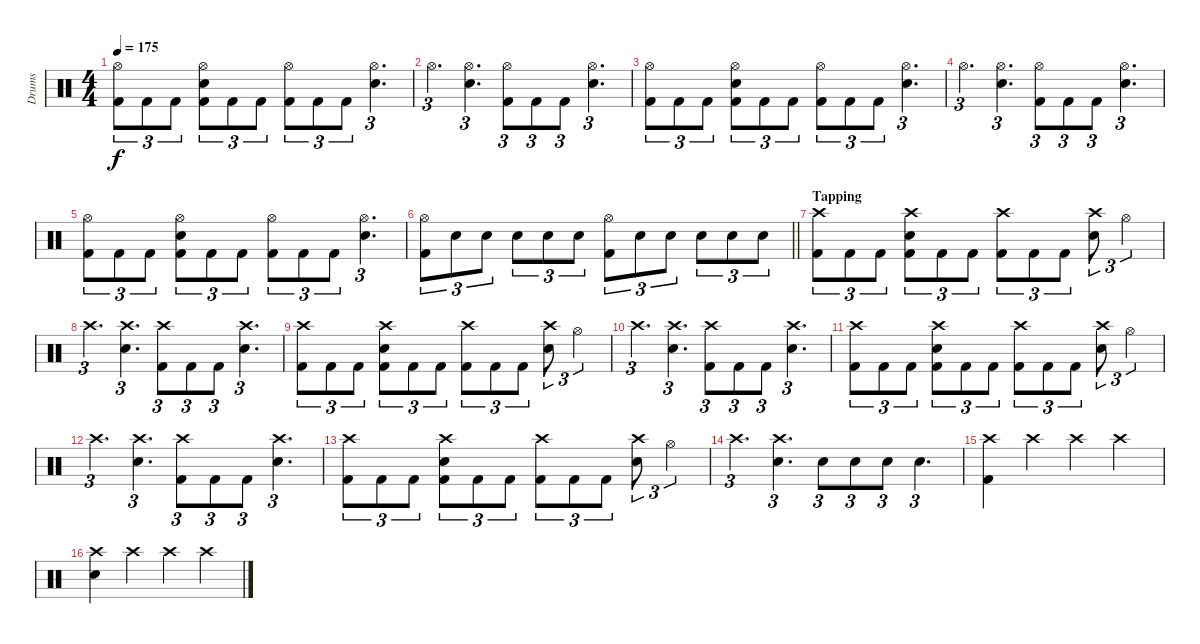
\track ("Drums" "Drums") {instrument percussion}
\staff {score}
\articulation defaults
\ts (4 4)
\tempo 175
\clef neutral
\ks c
("Hi-Hat (open)" "Kick (hit) 2").8{tu (3 2) dy f} "Kick (hit) 2".8{tu (3 2)} "Kick (hit) 2".8{tu (3 2)} ("Hi-Hat (open)" "Snare (hit) 2" "Kick (hit) 2").8{tu (3 2)} "Kick (hit) 2".8{tu (3 2)} "Kick (hit) 2".8{tu (3 2)} ("Hi-Hat (open)" "Kick (hit) 2").8{tu (3 2)} "Kick (hit) 2".8{tu (3 2)} "Kick (hit) 2".8{tu (3 2)} ("Hi-Hat (open)" "Snare (hit) 2").4{d tu (3 2)} |
"Hi-Hat (open)".4{d tu (3 2)} ("Hi-Hat (open)" "Snare (hit) 2").4{d tu (3 2)} ("Hi-Hat (open)" "Kick (hit) 2").8{tu (3 2)} "Kick (hit) 2".8{tu (3 2)} "Kick (hit) 2".8{tu (3 2)} ("Hi-Hat (open)" "Snare (hit) 2").4{d tu (3 2)} |
("Hi-Hat (open)" "Kick (hit) 2").8{tu (3 2)} "Kick (hit) 2".8{tu (3 2)} "Kick (hit) 2".8{tu (3 2)} ("Hi-Hat (open)" "Snare (hit) 2" "Kick (hit) 2").8{tu (3 2)} "Kick (hit) 2".8{tu (3 2)} "Kick (hit) 2".8{tu (3 2)} ("Hi-Hat (open)" "Kick (hit) 2").8{tu (3 2)} "Kick (hit) 2".8{tu (3 2)} "Kick (hit) 2".8{tu (3 2)} ("Hi-Hat (open)" "Snare (hit) 2").4{d tu (3 2)} |
"Hi-Hat (open)".4{d tu (3 2)} ("Hi-Hat (open)" "Snare (hit) 2").4{d tu (3 2)} ("Hi-Hat (open)" "Kick (hit) 2").8{tu (3 2)} "Kick (hit) 2".8{tu (3 2)} "Kick (hit) 2".8{tu (3 2)} ("Hi-Hat (open)" "Snare (hit) 2").4{d tu (3 2)} |
("Hi-Hat (open)" "Kick (hit) 2").8{tu (3 2)} "Kick (hit) 2".8{tu (3 2)} "Kick (hit) 2".8{tu (3 2)} ("Hi-Hat (open)" "Snare (hit) 2" "Kick (hit) 2").8{tu (3 2)} "Kick (hit) 2".8{tu (3 2)} "Kick (hit) 2".8{tu (3 2)} ("Hi-Hat (open)" "Kick (hit) 2").8{tu (3 2)} "Kick (hit) 2".8{tu (3 2)} "Kick (hit) 2".8{tu (3 2)} ("Hi-Hat (open)" "Snare (hit) 2").4{d tu (3 2)} |
\barLineRight lightlight
("Hi-Hat (open)" "Kick (hit) 2").8{tu (3 2)} "Snare (hit) 2".8{tu (3 2)} "Snare (hit) 2".8{tu (3 2)} "Snare (hit) 2".8{tu (3 2)} "Snare (hit) 2".8{tu (3 2)} "Snare (hit) 2".8{tu (3 2)} ("Hi-Hat (open)" "Kick (hit) 2").8{tu (3 2)} "Snare (hit) 2".8{tu (3 2)} "Snare (hit) 2".8{tu (3 2)} "Snare (hit) 2".8{tu (3 2)} "Snare (hit) 2".8{tu (3 2)} "Snare (hit) 2".8{tu (3 2)} |
\section ("" "Tapping")
("Crash high (hit)" "Kick (hit) 2").8{tu (3 2)} "Kick (hit) 2".8{tu (3 2)} "Kick (hit) 2".8{tu (3 2)} ("Crash high (hit)" "Snare (hit) 2" "Kick (hit) 2").8{tu (3 2)} "Kick (hit) 2".8{tu (3 2)} "Kick (hit) 2".8{tu (3 2)} ("Crash high (hit)" "Kick (hit) 2").8{tu (3 2)} "Kick (hit) 2".8{tu (3 2)} "Kick (hit) 2".8{tu (3 2)} ("Crash high (hit)" "Snare (hit) 2").8{tu (3 2)} "Hi-Hat (open)".4{tu (3 2)} |
"Crash high (hit)".4{d tu (3 2)} ("Crash high (hit)" "Snare (hit) 2").4{d tu (3 2)} ("Crash high (hit)" "Kick (hit) 2").8{tu (3 2)} "Kick (hit) 2".8{tu (3 2)} "Kick (hit) 2".8{tu (3 2)} ("Crash high (hit)" "Snare (hit) 2").4{d tu (3 2)} |
("Crash high (hit)" "Kick (hit) 2").8{tu (3 2)} "Kick (hit) 2".8{tu (3 2)} "Kick (hit) 2".8{tu (3 2)} ("Crash high (hit)" "Snare (hit) 2" "Kick (hit) 2").8{tu (3 2)} "Kick (hit) 2".8{tu (3 2)} "Kick (hit) 2".8{tu (3 2)} ("Crash high (hit)" "Kick (hit) 2").8{tu (3 2)} "Kick (hit) 2".8{tu (3 2)} "Kick (hit) 2".8{tu (3 2)} ("Crash high (hit)" "Snare (hit) 2").8{tu (3 2)} "Hi-Hat (open)".4{tu (3 2)} |
"Crash high (hit)".4{d tu (3 2)} ("Crash high (hit)" "Snare (hit) 2").4{d tu (3 2)} ("Crash high (hit)" "Kick (hit) 2").8{tu (3 2)} "Kick (hit) 2".8{tu (3 2)} "Kick (hit) 2".8{tu (3 2)} ("Crash high (hit)" "Snare (hit) 2").4{d tu (3 2)} |
("Crash high (hit)" "Kick (hit) 2").8{tu (3 2)} "Kick (hit) 2".8{tu (3 2)} "Kick (hit) 2".8{tu (3 2)} ("Crash high (hit)" "Snare (hit) 2" "Kick (hit) 2").8{tu (3 2)} "Kick (hit) 2".8{tu (3 2)} "Kick (hit) 2".8{tu (3 2)} ("Crash high (hit)" "Kick (hit) 2").8{tu (3 2)} "Kick (hit) 2".8{tu (3 2)} "Kick (hit) 2".8{tu (3 2)} ("Crash high (hit)" "Snare (hit) 2").8{tu (3 2)} "Hi-Hat (open)".4{tu (3 2)} |
"Crash high (hit)".4{d tu (3 2)} ("Crash high (hit)" "Snare (hit) 2").4{d tu (3 2)} ("Crash high (hit)" "Kick (hit) 2").8{tu (3 2)} "Kick (hit) 2".8{tu (3 2)} "Kick (hit) 2".8{tu (3 2)} ("Crash high (hit)" "Snare (hit) 2").4{d tu (3 2)} |
("Crash high (hit)" "Kick (hit) 2").8{tu (3 2)} "Kick (hit) 2".8{tu (3 2)} "Kick (hit) 2".8{tu (3 2)} ("Crash high (hit)" "Snare (hit) 2" "Kick (hit) 2").8{tu (3 2)} "Kick (hit) 2".8{tu (3 2)} "Kick (hit) 2".8{tu (3 2)} ("Crash high (hit)" "Kick (hit) 2").8{tu (3 2)} "Kick (hit) 2".8{tu (3 2)} "Kick (hit) 2".8{tu (3 2)} ("Crash high (hit)" "Snare (hit) 2").8{tu (3 2)} "Hi-Hat (open)".4{tu (3 2)} |
"Crash high (hit)".4{d tu (3 2)} ("Crash high (hit)" "Snare (hit) 2").4{d tu (3 2)} "Snare (hit) 2".8{tu (3 2)} "Snare (hit) 2".8{tu (3 2)} "Snare (hit) 2".8{tu (3 2)} "Snare (hit) 2".4{d tu (3 2)} |
("Crash high (hit)" "Kick (hit) 2").4 "Crash high (hit)".4 "Crash high (hit)".4 "Crash high (hit)".4 |
("Crash high (hit)" "Snare (hit) 2").4 "Crash high (hit)".4 "Crash high (hit)".4 "Crash high (hit)".4
